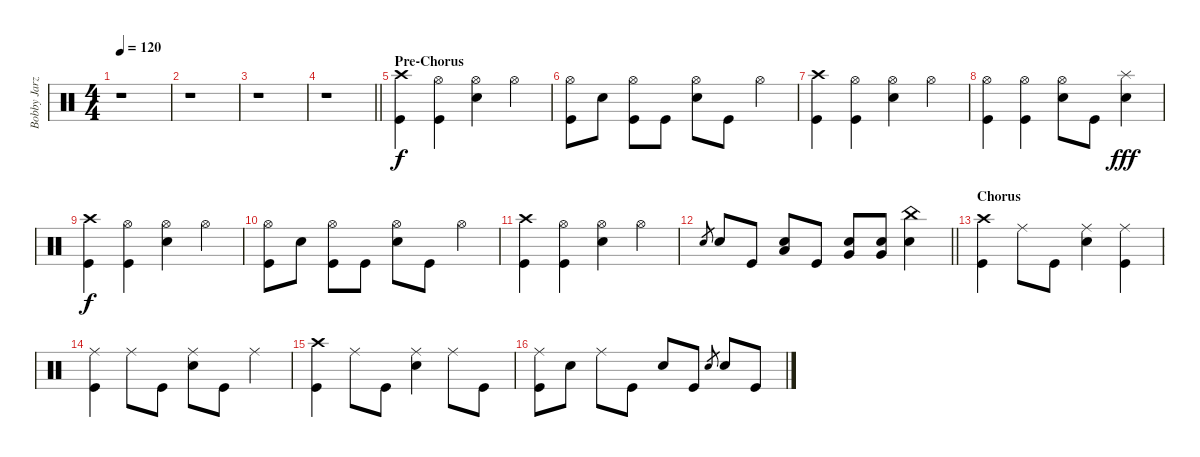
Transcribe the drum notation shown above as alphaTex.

\track ("Bobby Jarzombek" "Bobby Jarz") {instrument percussion}
\staff {score}
\articulation defaults
\ts (4 4)
\tempo 120
\clef neutral
\ks c
r.1{dy f} |
r.1 |
r.1 |
\barLineRight lightlight
r.1 |
\section ("" "Pre-Chorus")
("Crash high (hit)" "Kick (hit)").4 ("Hi-Hat (open)" "Kick (hit)").4 ("Hi-Hat (open)" "Electric Snare (hit)").4 "Hi-Hat (open)".4 |
("Hi-Hat (open)" "Kick (hit)").8 "Electric Snare (hit)".8 ("Hi-Hat (open)" "Kick (hit)").8 "Kick (hit)".8 ("Hi-Hat (open)" "Electric Snare (hit)").8 "Kick (hit)".8 "Hi-Hat (open)".4 |
("Crash high (hit)" "Kick (hit)").4 ("Hi-Hat (open)" "Kick (hit)").4 ("Hi-Hat (open)" "Electric Snare (hit)").4 "Hi-Hat (open)".4 |
("Hi-Hat (open)" "Kick (hit)").4 ("Hi-Hat (open)" "Kick (hit)").4 ("Hi-Hat (open)" "Electric Snare (hit)").8 "Kick (hit)".8 ("Splash (hit)" "Electric Snare (hit)").4{dy fff} |
("Crash high (hit)" "Kick (hit)").4{dy f} ("Hi-Hat (open)" "Kick (hit)").4 ("Hi-Hat (open)" "Electric Snare (hit)").4 "Hi-Hat (open)".4 |
("Hi-Hat (open)" "Kick (hit)").8 "Electric Snare (hit)".8 ("Hi-Hat (open)" "Kick (hit)").8 "Kick (hit)".8 ("Hi-Hat (open)" "Electric Snare (hit)").8 "Kick (hit)".8 "Hi-Hat (open)".4 |
("Crash high (hit)" "Kick (hit)").4 ("Hi-Hat (open)" "Kick (hit)").4 ("Hi-Hat (open)" "Electric Snare (hit)").4 "Hi-Hat (open)".4 |
\barLineRight lightlight "Electric Snare (hit)".8{gr} "Electric Snare (hit)".8 "Kick (hit)".8
("Low Tom (hit)" "Electric Snare (hit)").8 "Kick (hit)".8 ("Very Low Tom (hit)" "Electric Snare (hit)").8 ("Very Low Tom (hit)" "Electric Snare (hit)").8 ("China (hit)" "Electric Snare (hit)").4 |
\section ("" "Chorus")
("Crash high (hit)" "Kick (hit)").4 "Ride (middle)".8 "Kick (hit)".8 ("Ride (middle)" "Electric Snare (hit)").4 ("Ride (middle)" "Kick (hit)").4 |
("Ride (middle)" "Kick (hit)").4 "Ride (middle)".8 "Kick (hit)".8 ("Ride (middle)" "Electric Snare (hit)").8 "Kick (hit)".8 "Ride (middle)".4 |
("Crash high (hit)" "Kick (hit)").4 "Ride (middle)".8 "Kick (hit)".8 ("Ride (middle)" "Electric Snare (hit)").4 "Ride (middle)".8 "Kick (hit)".8 |
("Ride (middle)" "Kick (hit)").8 "Electric Snare (hit)".8 "Ride (middle)".8 "Kick (hit)".8 "Electric Snare (hit)".8 "Kick (hit)".8 "Electric Snare (hit)".8{gr} "Electric Snare (hit)".8 "Kick (hit)".8
